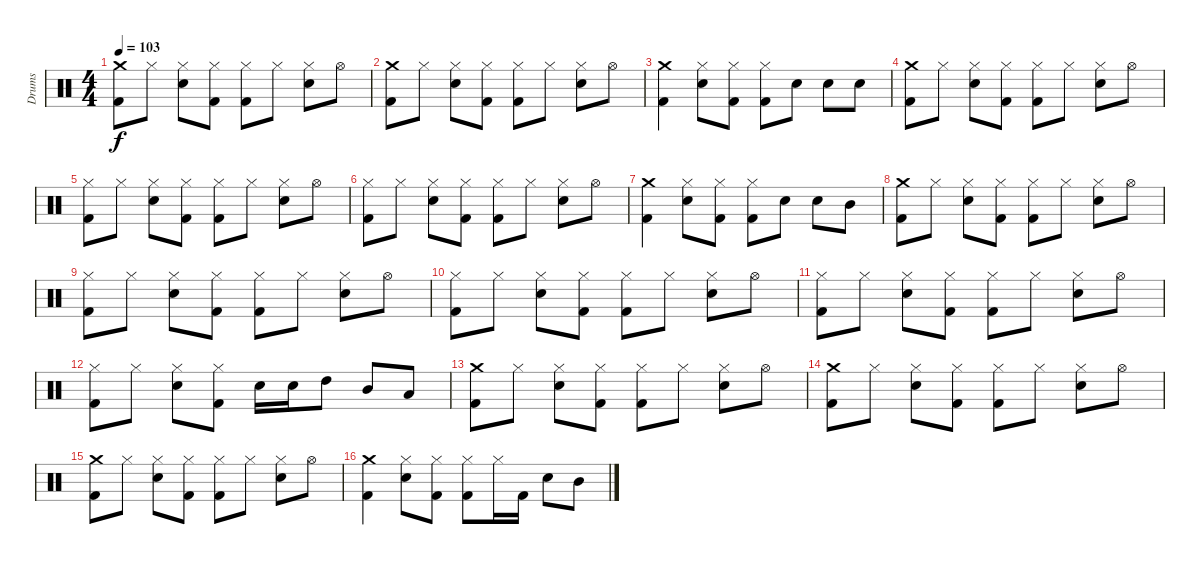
\track ("Drums" "Drums") {instrument percussion}
\staff {score}
\articulation defaults
\ts (4 4)
\tempo 103
\clef neutral
\ks c
("Crash medium (hit)" "Kick (hit) 2").8{dy f} "Hi-Hat (closed)".8 ("Hi-Hat (closed)" "Electric Snare (hit)").8 ("Hi-Hat (closed)" "Kick (hit) 2").8 ("Hi-Hat (closed)" "Kick (hit) 2").8 "Hi-Hat (closed)".8 ("Hi-Hat (closed)" "Electric Snare (hit)").8 "Hi-Hat (open)".8 |
("Crash medium (hit)" "Kick (hit) 2").8 "Hi-Hat (closed)".8 ("Hi-Hat (closed)" "Electric Snare (hit)").8 ("Hi-Hat (closed)" "Kick (hit) 2").8 ("Hi-Hat (closed)" "Kick (hit) 2").8 "Hi-Hat (closed)".8 ("Hi-Hat (closed)" "Electric Snare (hit)").8 "Hi-Hat (open)".8 |
("Crash medium (hit)" "Kick (hit) 2").4 ("Hi-Hat (closed)" "Electric Snare (hit)").8 ("Hi-Hat (closed)" "Kick (hit) 2").8 ("Hi-Hat (closed)" "Kick (hit) 2").8 "Electric Snare (hit)".8 "Electric Snare (hit)".8 "Electric Snare (hit)".8 |
("Crash medium (hit)" "Kick (hit) 2").8 "Hi-Hat (closed)".8 ("Hi-Hat (closed)" "Electric Snare (hit)").8 ("Hi-Hat (closed)" "Kick (hit) 2").8 ("Hi-Hat (closed)" "Kick (hit) 2").8 "Hi-Hat (closed)".8 ("Hi-Hat (closed)" "Electric Snare (hit)").8 "Hi-Hat (open)".8 |
("Hi-Hat (closed)" "Kick (hit) 2").8 "Hi-Hat (closed)".8 ("Hi-Hat (closed)" "Electric Snare (hit)").8 ("Hi-Hat (closed)" "Kick (hit) 2").8 ("Hi-Hat (closed)" "Kick (hit) 2").8 "Hi-Hat (closed)".8 ("Hi-Hat (closed)" "Electric Snare (hit)").8 "Hi-Hat (open)".8 |
("Hi-Hat (closed)" "Kick (hit) 2").8 "Hi-Hat (closed)".8 ("Hi-Hat (closed)" "Electric Snare (hit)").8 ("Hi-Hat (closed)" "Kick (hit) 2").8 ("Hi-Hat (closed)" "Kick (hit) 2").8 "Hi-Hat (closed)".8 ("Hi-Hat (closed)" "Electric Snare (hit)").8 "Hi-Hat (open)".8 |
("Crash medium (hit)" "Kick (hit) 2").4 ("Hi-Hat (closed)" "Electric Snare (hit)").8 ("Hi-Hat (closed)" "Kick (hit) 2").8 ("Hi-Hat (closed)" "Kick (hit) 2").8 "Electric Snare (hit)".8 "Electric Snare (hit)".8 "Mid Tom (hit)".8 |
("Crash medium (hit)" "Kick (hit) 2").8 "Hi-Hat (closed)".8 ("Hi-Hat (closed)" "Electric Snare (hit)").8 ("Hi-Hat (closed)" "Kick (hit) 2").8 ("Hi-Hat (closed)" "Kick (hit) 2").8 "Hi-Hat (closed)".8 ("Hi-Hat (closed)" "Electric Snare (hit)").8 "Hi-Hat (open)".8 |
("Hi-Hat (closed)" "Kick (hit) 2").8 "Hi-Hat (closed)".8 ("Hi-Hat (closed)" "Electric Snare (hit)").8 ("Hi-Hat (closed)" "Kick (hit) 2").8 ("Hi-Hat (closed)" "Kick (hit) 2").8 "Hi-Hat (closed)".8 ("Hi-Hat (closed)" "Electric Snare (hit)").8 "Hi-Hat (open)".8 |
("Hi-Hat (closed)" "Kick (hit) 2").8 "Hi-Hat (closed)".8 ("Hi-Hat (closed)" "Electric Snare (hit)").8 ("Hi-Hat (closed)" "Kick (hit) 2").8 ("Hi-Hat (closed)" "Kick (hit) 2").8 "Hi-Hat (closed)".8 ("Hi-Hat (closed)" "Electric Snare (hit)").8 "Hi-Hat (open)".8 |
("Hi-Hat (closed)" "Kick (hit) 2").8 "Hi-Hat (closed)".8 ("Hi-Hat (closed)" "Electric Snare (hit)").8 ("Hi-Hat (closed)" "Kick (hit) 2").8 ("Hi-Hat (closed)" "Kick (hit) 2").8 "Hi-Hat (closed)".8 ("Hi-Hat (closed)" "Electric Snare (hit)").8 "Hi-Hat (open)".8 |
("Hi-Hat (closed)" "Kick (hit) 2").8 "Hi-Hat (closed)".8 ("Hi-Hat (closed)" "Electric Snare (hit)").8 ("Hi-Hat (closed)" "Kick (hit) 2").8 "Electric Snare (hit)".16 "Electric Snare (hit)".16 "High Tom (hit)".8 "Mid Tom (hit)".8 "Low Tom (hit)".8 |
("Crash medium (hit)" "Kick (hit) 2").8 "Hi-Hat (closed)".8 ("Hi-Hat (closed)" "Electric Snare (hit)").8 ("Hi-Hat (closed)" "Kick (hit) 2").8 ("Hi-Hat (closed)" "Kick (hit) 2").8 "Hi-Hat (closed)".8 ("Hi-Hat (closed)" "Electric Snare (hit)").8 "Hi-Hat (open)".8 |
("Crash medium (hit)" "Kick (hit) 2").8 "Hi-Hat (closed)".8 ("Hi-Hat (closed)" "Electric Snare (hit)").8 ("Hi-Hat (closed)" "Kick (hit) 2").8 ("Hi-Hat (closed)" "Kick (hit) 2").8 "Hi-Hat (closed)".8 ("Hi-Hat (closed)" "Electric Snare (hit)").8 "Hi-Hat (open)".8 |
("Crash medium (hit)" "Kick (hit) 2").8 "Hi-Hat (closed)".8 ("Hi-Hat (closed)" "Electric Snare (hit)").8 ("Hi-Hat (closed)" "Kick (hit) 2").8 ("Hi-Hat (closed)" "Kick (hit) 2").8 "Hi-Hat (closed)".8 ("Hi-Hat (closed)" "Electric Snare (hit)").8 "Hi-Hat (open)".8 |
("Crash medium (hit)" "Kick (hit) 2").4 ("Hi-Hat (closed)" "Electric Snare (hit)").8 ("Hi-Hat (closed)" "Kick (hit) 2").8 ("Hi-Hat (closed)" "Kick (hit) 2").8 "Hi-Hat (closed)".16 "Kick (hit) 2".16 "Electric Snare (hit)".8 "Mid Tom (hit)".8
